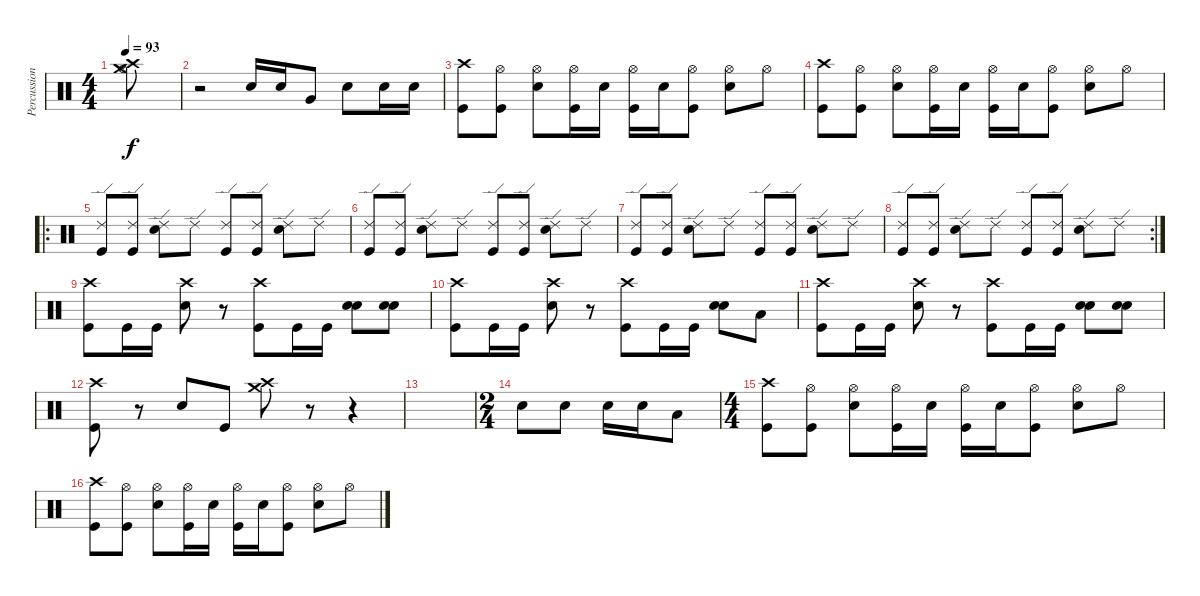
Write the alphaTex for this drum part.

\track ("Percussions" "Percussion") {instrument percussion}
\staff {score}
\articulation defaults
\ts (4 4)
\tempo 93
\clef neutral
\ks c
("Crash high (hit)" "Crash medium (hit)" "Hi-Hat (open)").8{dy f} |
r.2 "Electric Snare (hit)".16 "Electric Snare (hit)".16 "Very Low Tom (hit)".8 "Electric Snare (hit)".8 "Electric Snare (hit)".16 "Electric Snare (hit)".16 |
("Crash high (hit)" "Kick (hit)").8 ("Hi-Hat (open)" "Kick (hit)").8 ("Hi-Hat (open)" "Electric Snare (hit)").8 ("Hi-Hat (open)" "Kick (hit)").16 "Electric Snare (hit)".16 ("Hi-Hat (open)" "Kick (hit)").16 "Electric Snare (hit)".16 ("Hi-Hat (open)" "Kick (hit)").8 ("Hi-Hat (open)" "Electric Snare (hit)").8 "Hi-Hat (open)".8 |
("Crash high (hit)" "Kick (hit)").8 ("Hi-Hat (open)" "Kick (hit)").8 ("Hi-Hat (open)" "Electric Snare (hit)").8 ("Hi-Hat (open)" "Kick (hit)").16 "Electric Snare (hit)".16 ("Hi-Hat (open)" "Kick (hit)").16 "Electric Snare (hit)".16 ("Hi-Hat (open)" "Kick (hit)").8 ("Hi-Hat (open)" "Electric Snare (hit)").8 "Hi-Hat (open)".8 |
\ro
("Ride (edge) 2" "Kick (hit)").8{volume 7} ("Ride (edge) 2" "Kick (hit)").8 ("Ride (edge) 2" "Electric Snare (hit)").8 "Ride (edge) 2".8 ("Ride (edge) 2" "Kick (hit)").8 ("Ride (edge) 2" "Kick (hit)").8 ("Ride (edge) 2" "Electric Snare (hit)").8 "Ride (edge) 2".8 |
("Ride (edge) 2" "Kick (hit)").8 ("Ride (edge) 2" "Kick (hit)").8 ("Ride (edge) 2" "Electric Snare (hit)").8 "Ride (edge) 2".8 ("Ride (edge) 2" "Kick (hit)").8 ("Ride (edge) 2" "Kick (hit)").8 ("Ride (edge) 2" "Electric Snare (hit)").8 "Ride (edge) 2".8 |
("Ride (edge) 2" "Kick (hit)").8 ("Ride (edge) 2" "Kick (hit)").8 ("Ride (edge) 2" "Electric Snare (hit)").8 "Ride (edge) 2".8 ("Ride (edge) 2" "Kick (hit)").8 ("Ride (edge) 2" "Kick (hit)").8 ("Ride (edge) 2" "Electric Snare (hit)").8 "Ride (edge) 2".8 |
\rc 2
("Ride (edge) 2" "Kick (hit)").8 ("Ride (edge) 2" "Kick (hit)").8 ("Ride (edge) 2" "Electric Snare (hit)").8 "Ride (edge) 2".8 ("Ride (edge) 2" "Kick (hit)").8 ("Ride (edge) 2" "Kick (hit)").8 ("Ride (edge) 2" "Electric Snare (hit)").8 "Ride (edge) 2".8 |
("Crash high (hit)" "Kick (hit)").8{volume 10} "Kick (hit)".16 "Kick (hit)".16 ("Crash high (hit)" "Electric Snare (hit)").8 r.8 ("Crash high (hit)" "Kick (hit)").8 "Kick (hit)".16 "Kick (hit)".16 ("Snare (hit) 2" "Electric Snare (hit)").8 ("Snare (hit) 2" "Electric Snare (hit)").8 |
("Crash high (hit)" "Kick (hit)").8 "Kick (hit)".16 "Kick (hit)".16 ("Crash high (hit)" "Electric Snare (hit)").8 r.8 ("Crash high (hit)" "Kick (hit)").8 "Kick (hit)".16 "Kick (hit)".16 ("Snare (hit) 2" "Electric Snare (hit)").8 "Low Floor Tom (hit)".8 |
("Crash high (hit)" "Kick (hit)").8 "Kick (hit)".16 "Kick (hit)".16 ("Crash high (hit)" "Electric Snare (hit)").8 r.8 ("Crash high (hit)" "Kick (hit)").8 "Kick (hit)".16 "Kick (hit)".16 ("Snare (hit) 2" "Electric Snare (hit)").8 ("Snare (hit) 2" "Electric Snare (hit)").8 |
("Crash high (hit)" "Kick (hit)").8 r.8 "Electric Snare (hit)".8 "Kick (hit)".8 ("Crash high (hit)" "Crash medium (hit)").8 r.8 r.4 |
|
\ts (2 4)
"Electric Snare (hit)".8 "Electric Snare (hit)".8 "Electric Snare (hit)".16 "Electric Snare (hit)".16 "Low Tom (hit)".8 |
\ts (4 4)
("Crash high (hit)" "Kick (hit)").8 ("Hi-Hat (open)" "Kick (hit)").8 ("Hi-Hat (open)" "Electric Snare (hit)").8 ("Hi-Hat (open)" "Kick (hit)").16 "Electric Snare (hit)".16 ("Hi-Hat (open)" "Kick (hit)").16 "Electric Snare (hit)".16 ("Hi-Hat (open)" "Kick (hit)").8 ("Hi-Hat (open)" "Electric Snare (hit)").8 "Hi-Hat (open)".8 |
("Crash high (hit)" "Kick (hit)").8 ("Hi-Hat (open)" "Kick (hit)").8 ("Hi-Hat (open)" "Electric Snare (hit)").8 ("Hi-Hat (open)" "Kick (hit)").16 "Electric Snare (hit)".16 ("Hi-Hat (open)" "Kick (hit)").16 "Electric Snare (hit)".16 ("Hi-Hat (open)" "Kick (hit)").8 ("Hi-Hat (open)" "Electric Snare (hit)").8 "Hi-Hat (open)".8
